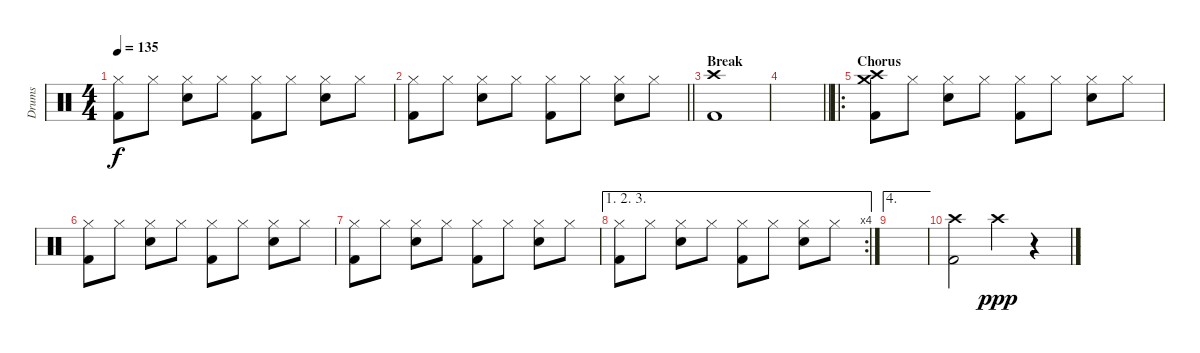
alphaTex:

\track ("Drums" "Drums") {instrument percussion}
\staff {score}
\articulation defaults
\ts (4 4)
\tempo 135
\clef neutral
\ks c
("Hi-Hat (closed)" "Kick (hit) 2").8{dy f} "Hi-Hat (closed)".8 ("Hi-Hat (closed)" "Electric Snare (hit)").8 "Hi-Hat (closed)".8 ("Hi-Hat (closed)" "Kick (hit) 2").8 "Hi-Hat (closed)".8 ("Hi-Hat (closed)" "Electric Snare (hit)").8 "Hi-Hat (closed)".8 |
\barLineRight lightlight
("Hi-Hat (closed)" "Kick (hit) 2").8 "Hi-Hat (closed)".8 ("Hi-Hat (closed)" "Electric Snare (hit)").8 "Hi-Hat (closed)".8 ("Hi-Hat (closed)" "Kick (hit) 2").8 "Hi-Hat (closed)".8 ("Hi-Hat (closed)" "Electric Snare (hit)").8 "Hi-Hat (closed)".8 |
\section ("" "Break")
("Crash high (hit)" "Kick (hit) 2").1 |
\barLineRight lightlight
|
\ro
\section ("" "Chorus")
("Crash high (hit)" "Crash medium (hit)" "Kick (hit) 2").8 "Hi-Hat (closed)".8 ("Hi-Hat (closed)" "Electric Snare (hit)").8 "Hi-Hat (closed)".8 ("Hi-Hat (closed)" "Kick (hit) 2").8 "Hi-Hat (closed)".8 ("Hi-Hat (closed)" "Electric Snare (hit)").8 "Hi-Hat (closed)".8 |
("Hi-Hat (closed)" "Kick (hit) 2").8 "Hi-Hat (closed)".8 ("Hi-Hat (closed)" "Electric Snare (hit)").8 "Hi-Hat (closed)".8 ("Hi-Hat (closed)" "Kick (hit) 2").8 "Hi-Hat (closed)".8 ("Hi-Hat (closed)" "Electric Snare (hit)").8 "Hi-Hat (closed)".8 |
("Hi-Hat (closed)" "Kick (hit) 2").8 "Hi-Hat (closed)".8 ("Hi-Hat (closed)" "Electric Snare (hit)").8 "Hi-Hat (closed)".8 ("Hi-Hat (closed)" "Kick (hit) 2").8 "Hi-Hat (closed)".8 ("Hi-Hat (closed)" "Electric Snare (hit)").8 "Hi-Hat (closed)".8 |
\ae (1 2 3)
\rc 4
("Hi-Hat (closed)" "Kick (hit) 2").8 "Hi-Hat (closed)".8 ("Hi-Hat (closed)" "Electric Snare (hit)").8 "Hi-Hat (closed)".8 ("Hi-Hat (closed)" "Kick (hit) 2").8 "Hi-Hat (closed)".8 ("Hi-Hat (closed)" "Electric Snare (hit)").8 "Hi-Hat (closed)".8 |
\ae 4
|
("Crash high (hit)" "Kick (hit) 2").2 "Crash high (hit)".4{dy ppp} r.4
